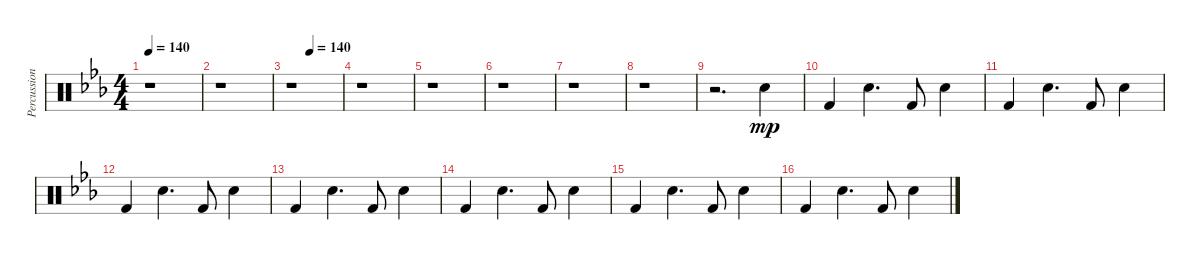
\track ("Percussions" "Percussion") {instrument percussion}
\staff {score}
\articulation defaults
\ts (4 4)
\tempo 140
\clef neutral
\ks cminor
r.1{dy mp} |
r.1 |
\tempo (140 0.375)
r.1 |
r.1 |
r.1 |
r.1 |
r.1 |
r.1 |
r.2{d} "Snare (hit) 2".4 |
"Kick (hit) 2".4 "Snare (hit) 2".4{d} "Kick (hit) 2".8 "Snare (hit) 2".4 |
"Kick (hit) 2".4 "Snare (hit) 2".4{d} "Kick (hit) 2".8 "Snare (hit) 2".4 |
"Kick (hit) 2".4 "Snare (hit) 2".4{d} "Kick (hit) 2".8 "Snare (hit) 2".4 |
"Kick (hit) 2".4 "Snare (hit) 2".4{d} "Kick (hit) 2".8 "Snare (hit) 2".4 |
"Kick (hit) 2".4 "Snare (hit) 2".4{d} "Kick (hit) 2".8 "Snare (hit) 2".4 |
"Kick (hit) 2".4 "Snare (hit) 2".4{d} "Kick (hit) 2".8 "Snare (hit) 2".4 |
"Kick (hit) 2".4 "Snare (hit) 2".4{d} "Kick (hit) 2".8 "Snare (hit) 2".4
